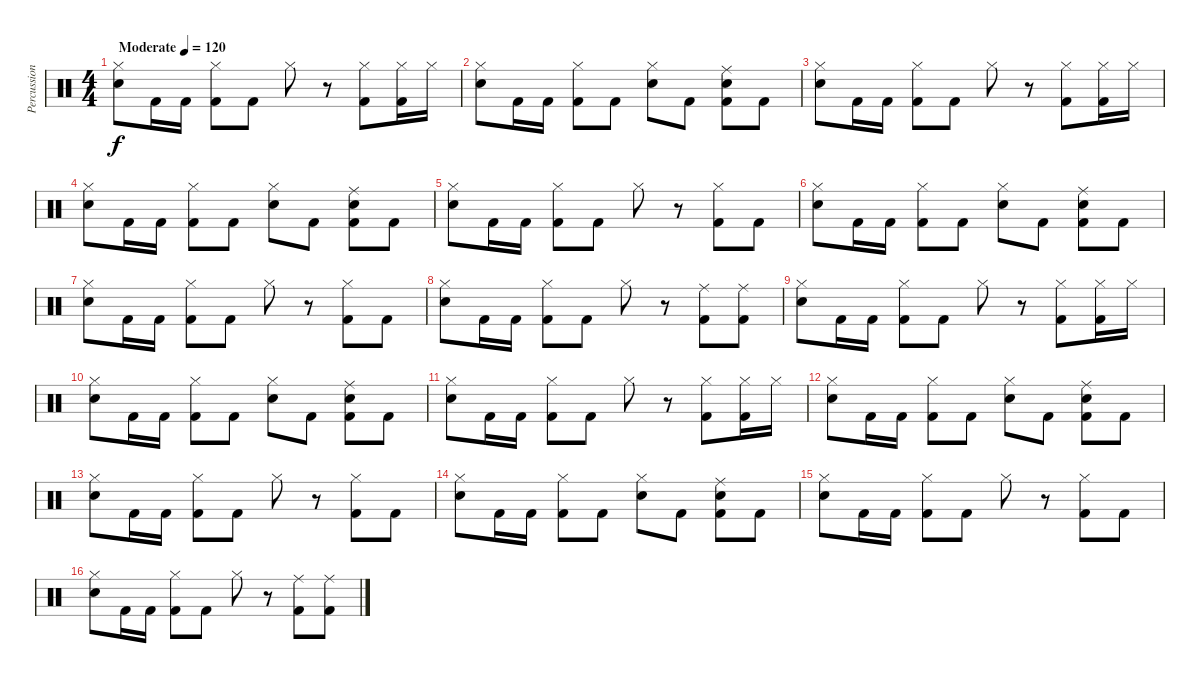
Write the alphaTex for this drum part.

\track ("Percussions" "Percussion") {instrument percussion}
\staff {score}
\articulation defaults
\ts (4 4)
\tempo (120 "Moderate")
\clef neutral
\ks c
("Hi-Hat (closed)" "Snare (hit) 2").8{dy f} "Kick (hit) 2".16 "Kick (hit) 2".16 ("Hi-Hat (closed)" "Kick (hit) 2").8 "Kick (hit) 2".8 "Hi-Hat (closed)".8 r.8 ("Hi-Hat (closed)" "Kick (hit) 2").8 ("Hi-Hat (closed)" "Kick (hit) 2").16 "Hi-Hat (closed)".16 |
("Hi-Hat (closed)" "Snare (hit) 2").8 "Kick (hit) 2".16 "Kick (hit) 2".16 ("Hi-Hat (closed)" "Kick (hit) 2").8 "Kick (hit) 2".8 ("Hi-Hat (closed)" "Snare (hit) 2").8 "Kick (hit) 2".8 ("Ride (middle)" "Kick (hit) 2" "Snare (hit) 2").8 "Kick (hit) 2".8 |
("Hi-Hat (closed)" "Snare (hit) 2").8 "Kick (hit) 2".16 "Kick (hit) 2".16 ("Hi-Hat (closed)" "Kick (hit) 2").8 "Kick (hit) 2".8 "Hi-Hat (closed)".8 r.8 ("Hi-Hat (closed)" "Kick (hit) 2").8 ("Hi-Hat (closed)" "Kick (hit) 2").16 "Hi-Hat (closed)".16 |
("Hi-Hat (closed)" "Snare (hit) 2").8 "Kick (hit) 2".16 "Kick (hit) 2".16 ("Hi-Hat (closed)" "Kick (hit) 2").8 "Kick (hit) 2".8 ("Hi-Hat (closed)" "Snare (hit) 2").8 "Kick (hit) 2".8 ("Ride (middle)" "Kick (hit) 2" "Snare (hit) 2").8 "Kick (hit) 2".8 |
("Hi-Hat (closed)" "Snare (hit) 2").8 "Kick (hit) 2".16 "Kick (hit) 2".16 ("Hi-Hat (closed)" "Kick (hit) 2").8 "Kick (hit) 2".8 "Hi-Hat (closed)".8 r.8 ("Hi-Hat (closed)" "Kick (hit) 2").8 "Kick (hit) 2".8 |
("Hi-Hat (closed)" "Snare (hit) 2").8 "Kick (hit) 2".16 "Kick (hit) 2".16 ("Hi-Hat (closed)" "Kick (hit) 2").8 "Kick (hit) 2".8 ("Hi-Hat (closed)" "Snare (hit) 2").8 "Kick (hit) 2".8 ("Ride (middle)" "Kick (hit) 2" "Snare (hit) 2").8 "Kick (hit) 2".8 |
("Hi-Hat (closed)" "Snare (hit) 2").8 "Kick (hit) 2".16 "Kick (hit) 2".16 ("Hi-Hat (closed)" "Kick (hit) 2").8 "Kick (hit) 2".8 "Hi-Hat (closed)".8 r.8 ("Hi-Hat (closed)" "Kick (hit) 2").8 "Kick (hit) 2".8 |
("Hi-Hat (closed)" "Snare (hit) 2").8 "Kick (hit) 2".16 "Kick (hit) 2".16 ("Hi-Hat (closed)" "Kick (hit) 2").8 "Kick (hit) 2".8 "Hi-Hat (closed)".8 r.8 ("Ride (middle)" "Kick (hit) 2").8 ("Ride (middle)" "Kick (hit) 2").8 |
("Hi-Hat (closed)" "Snare (hit) 2").8 "Kick (hit) 2".16 "Kick (hit) 2".16 ("Hi-Hat (closed)" "Kick (hit) 2").8 "Kick (hit) 2".8 "Hi-Hat (closed)".8 r.8 ("Hi-Hat (closed)" "Kick (hit) 2").8 ("Hi-Hat (closed)" "Kick (hit) 2").16 "Hi-Hat (closed)".16 |
("Hi-Hat (closed)" "Snare (hit) 2").8 "Kick (hit) 2".16 "Kick (hit) 2".16 ("Hi-Hat (closed)" "Kick (hit) 2").8 "Kick (hit) 2".8 ("Hi-Hat (closed)" "Snare (hit) 2").8 "Kick (hit) 2".8 ("Ride (middle)" "Kick (hit) 2" "Snare (hit) 2").8 "Kick (hit) 2".8 |
("Hi-Hat (closed)" "Snare (hit) 2").8 "Kick (hit) 2".16 "Kick (hit) 2".16 ("Hi-Hat (closed)" "Kick (hit) 2").8 "Kick (hit) 2".8 "Hi-Hat (closed)".8 r.8 ("Hi-Hat (closed)" "Kick (hit) 2").8 ("Hi-Hat (closed)" "Kick (hit) 2").16 "Hi-Hat (closed)".16 |
("Hi-Hat (closed)" "Snare (hit) 2").8 "Kick (hit) 2".16 "Kick (hit) 2".16 ("Hi-Hat (closed)" "Kick (hit) 2").8 "Kick (hit) 2".8 ("Hi-Hat (closed)" "Snare (hit) 2").8 "Kick (hit) 2".8 ("Ride (middle)" "Kick (hit) 2" "Snare (hit) 2").8 "Kick (hit) 2".8 |
("Hi-Hat (closed)" "Snare (hit) 2").8 "Kick (hit) 2".16 "Kick (hit) 2".16 ("Hi-Hat (closed)" "Kick (hit) 2").8 "Kick (hit) 2".8 "Hi-Hat (closed)".8 r.8 ("Hi-Hat (closed)" "Kick (hit) 2").8 "Kick (hit) 2".8 |
("Hi-Hat (closed)" "Snare (hit) 2").8 "Kick (hit) 2".16 "Kick (hit) 2".16 ("Hi-Hat (closed)" "Kick (hit) 2").8 "Kick (hit) 2".8 ("Hi-Hat (closed)" "Snare (hit) 2").8 "Kick (hit) 2".8 ("Ride (middle)" "Kick (hit) 2" "Snare (hit) 2").8 "Kick (hit) 2".8 |
("Hi-Hat (closed)" "Snare (hit) 2").8 "Kick (hit) 2".16 "Kick (hit) 2".16 ("Hi-Hat (closed)" "Kick (hit) 2").8 "Kick (hit) 2".8 "Hi-Hat (closed)".8 r.8 ("Hi-Hat (closed)" "Kick (hit) 2").8 "Kick (hit) 2".8 |
("Hi-Hat (closed)" "Snare (hit) 2").8 "Kick (hit) 2".16 "Kick (hit) 2".16 ("Hi-Hat (closed)" "Kick (hit) 2").8 "Kick (hit) 2".8 "Hi-Hat (closed)".8 r.8 ("Ride (middle)" "Kick (hit) 2").8 ("Ride (middle)" "Kick (hit) 2").8
